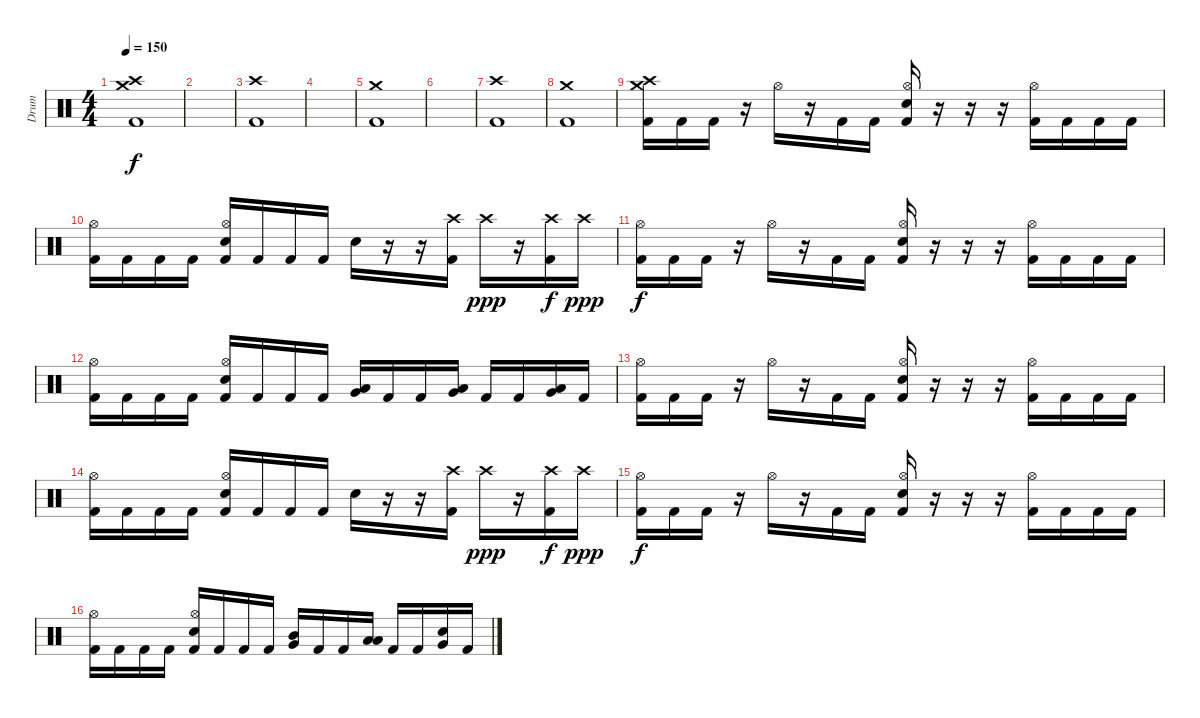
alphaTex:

\track ("Drum" "Drum") {instrument percussion}
\staff {score}
\articulation defaults
\ts (4 4)
\section ("" "")
\tempo 150
\clef neutral
\ks c
("Crash high (hit)" "Crash medium (hit)" "Kick (hit) 2").1{dy f} |
|
("Crash high (hit)" "Kick (hit) 2").1 |
|
("Crash medium (hit)" "Kick (hit) 2").1 |
|
("Crash high (hit)" "Kick (hit) 2").1 |
("Crash medium (hit)" "Kick (hit) 2").1 |
("Crash high (hit)" "Crash medium (hit)" "Kick (hit) 2").16 "Kick (hit) 2".16 "Kick (hit) 2".16 r.16 "Hi-Hat (open)".16 r.16 "Kick (hit) 2".16 "Kick (hit) 2".16 ("Hi-Hat (open)" "Snare (hit) 2" "Kick (hit) 2").16 r.16 r.16 r.16 ("Hi-Hat (open)" "Kick (hit) 2").16 "Kick (hit) 2".16 "Kick (hit) 2".16 "Kick (hit) 2".16 |
("Hi-Hat (open)" "Kick (hit) 2").16 "Kick (hit) 2".16 "Kick (hit) 2".16 "Kick (hit) 2".16 ("Hi-Hat (open)" "Snare (hit) 2" "Kick (hit) 2").16 "Kick (hit) 2".16 "Kick (hit) 2".16 "Kick (hit) 2".16 "Snare (hit) 2".16 r.16 r.16 ("Crash high (hit)" "Kick (hit) 2").16 "Crash high (hit)".16{dy ppp} r.16 ("Crash high (hit)" "Kick (hit) 2").16{dy f} "Crash high (hit)".16{dy ppp} |
("Hi-Hat (open)" "Kick (hit) 2").16{dy f} "Kick (hit) 2".16 "Kick (hit) 2".16 r.16 "Hi-Hat (open)".16 r.16 "Kick (hit) 2".16 "Kick (hit) 2".16 ("Hi-Hat (open)" "Snare (hit) 2" "Kick (hit) 2").16 r.16 r.16 r.16 ("Hi-Hat (open)" "Kick (hit) 2").16 "Kick (hit) 2".16 "Kick (hit) 2".16 "Kick (hit) 2".16 |
("Hi-Hat (open)" "Kick (hit) 2").16 "Kick (hit) 2".16 "Kick (hit) 2".16 "Kick (hit) 2".16 ("Hi-Hat (open)" "Snare (hit) 2" "Kick (hit) 2").16 "Kick (hit) 2".16 "Kick (hit) 2".16 "Kick (hit) 2".16 ("Low Floor Tom (hit)" "Very Low Tom (hit)").16 "Kick (hit) 2".16 "Kick (hit) 2".16 ("Very Low Tom (hit)" "Low Floor Tom (hit)").16 "Kick (hit) 2".16 "Kick (hit) 2".16 ("Low Floor Tom (hit)" "Very Low Tom (hit)").16 "Kick (hit) 2".16 |
("Hi-Hat (open)" "Kick (hit) 2").16 "Kick (hit) 2".16 "Kick (hit) 2".16 r.16 "Hi-Hat (open)".16 r.16 "Kick (hit) 2".16 "Kick (hit) 2".16 ("Hi-Hat (open)" "Snare (hit) 2" "Kick (hit) 2").16 r.16 r.16 r.16 ("Hi-Hat (open)" "Kick (hit) 2").16 "Kick (hit) 2".16 "Kick (hit) 2".16 "Kick (hit) 2".16 |
("Hi-Hat (open)" "Kick (hit) 2").16 "Kick (hit) 2".16 "Kick (hit) 2".16 "Kick (hit) 2".16 ("Hi-Hat (open)" "Snare (hit) 2" "Kick (hit) 2").16 "Kick (hit) 2".16 "Kick (hit) 2".16 "Kick (hit) 2".16 "Snare (hit) 2".16 r.16 r.16 ("Crash high (hit)" "Kick (hit) 2").16 "Crash high (hit)".16{dy ppp} r.16 ("Crash high (hit)" "Kick (hit) 2").16{dy f} "Crash high (hit)".16{dy ppp} |
("Hi-Hat (open)" "Kick (hit) 2").16{dy f} "Kick (hit) 2".16 "Kick (hit) 2".16 r.16 "Hi-Hat (open)".16 r.16 "Kick (hit) 2".16 "Kick (hit) 2".16 ("Hi-Hat (open)" "Snare (hit) 2" "Kick (hit) 2").16 r.16 r.16 r.16 ("Hi-Hat (open)" "Kick (hit) 2").16 "Kick (hit) 2".16 "Kick (hit) 2".16 "Kick (hit) 2".16 |
("Hi-Hat (open)" "Kick (hit) 2").16 "Kick (hit) 2".16 "Kick (hit) 2".16 "Kick (hit) 2".16 ("Hi-Hat (open)" "Snare (hit) 2" "Kick (hit) 2").16 "Kick (hit) 2".16 "Kick (hit) 2".16 "Kick (hit) 2".16 ("Mid Tom (hit)" "Very Low Tom (hit)").16 "Kick (hit) 2".16 "Kick (hit) 2".16 ("Low Tom (hit)" "Low Floor Tom (hit)").16 "Kick (hit) 2".16 "Kick (hit) 2".16 ("Snare (hit) 2" "Very Low Tom (hit)").16 "Kick (hit) 2".16
